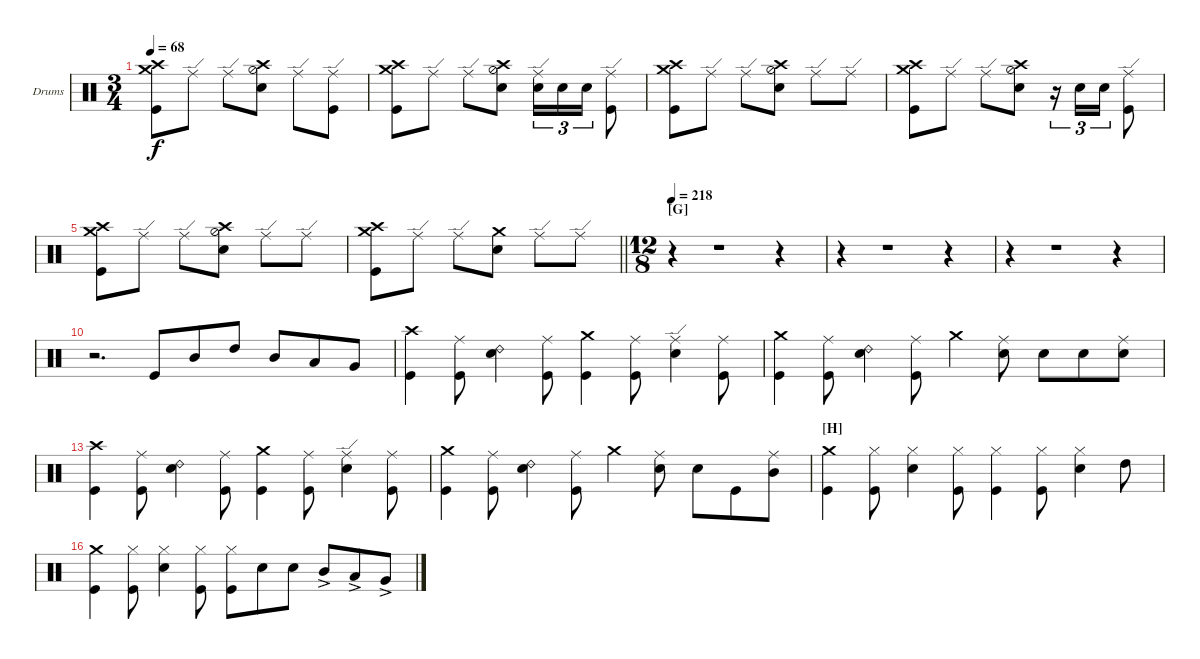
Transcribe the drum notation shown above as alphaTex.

\bracketExtendMode nobrackets
\firstSystemTrackNameOrientation horizontal
\otherSystemsTrackNameOrientation horizontal
\defaultBarNumberDisplay FirstOfSystem
\track ("Drums" "Drums") {instrument percussion}
\staff {score}
\articulation defaults
\ts (3 4)
\tempo 68
\clef neutral
\ks c
("Kick (hit)" "Crash medium (hit)" "Crash high (hit)").8{dy f} "Ride (edge)".8 "Ride (edge)".8 ("Snare (hit) 2" "Crash high (hit)" "Hi-Hat (half)").8 "Ride (edge)".8 ("Ride (edge)" "Kick (hit)").8 |
("Kick (hit)" "Crash medium (hit)" "Crash high (hit)").8 "Ride (edge)".8 "Ride (edge)".8 ("Snare (hit) 2" "Crash high (hit)" "Hi-Hat (half)").8 ("Ride (edge)" "Snare (hit) 2").16{tu (3 2)} "Snare (hit) 2".16{tu (3 2)} "Snare (hit) 2".16{tu (3 2)} ("Ride (edge)" "Kick (hit)").8 |
("Kick (hit)" "Crash medium (hit)" "Crash high (hit)").8 "Ride (edge)".8 "Ride (edge)".8 ("Snare (hit) 2" "Crash high (hit)" "Hi-Hat (half)").8 "Ride (edge)".8 "Ride (edge)".8 |
("Kick (hit)" "Crash medium (hit)" "Crash high (hit)").8 "Ride (edge)".8 "Ride (edge)".8 ("Snare (hit) 2" "Crash high (hit)" "Hi-Hat (half)").8 r.16{tu (3 2)} "Snare (hit) 2".16{tu (3 2)} "Snare (hit) 2".16{tu (3 2)} ("Ride (edge)" "Kick (hit)").8 |
("Kick (hit)" "Crash medium (hit)" "Crash high (hit)").8 "Ride (edge)".8 "Ride (edge)".8 ("Snare (hit) 2" "Crash high (hit)" "Hi-Hat (half)").8 "Ride (edge)".8 "Ride (edge)".8 |
\barLineRight lightlight
("Kick (hit)" "Crash medium (hit)" "Crash high (hit)").8 "Ride (edge)".8 "Ride (edge)".8 ("Snare (hit) 2" "Crash medium (hit)").8 "Ride (edge)".8 "Ride (edge)".8 |
\ts (12 8)
\section ("G" "")
\tempo 218
r.4 r.1 r.4 |
r.4 r.1 r.4 |
r.4 r.1 r.4 |
r.2{d} "Kick (hit)".8 "Mid Tom (hit)".8 "High Tom (hit)".8 "Mid Tom (hit)".8 "Low Tom (hit)".8 "Very Low Tom (hit)".8 |
("Kick (hit)" "Crash high (hit)").4 ("Ride (middle)" "Kick (hit)").8 ("Ride (bell) 2" "Snare (hit) 2").4 ("Kick (hit)" "Ride (middle)").8 ("Kick (hit)" "Crash medium (hit)").4 ("Ride (middle)" "Kick (hit)").8 ("Ride (edge)" "Snare (hit) 2").4 ("Ride (middle)" "Kick (hit)").8 |
("Crash medium (hit)" "Kick (hit)").4 ("Ride (middle)" "Kick (hit)").8 ("Ride (bell) 2" "Snare (hit) 2").4 ("Ride (middle)" "Kick (hit)").8 "Crash medium (hit)".4 ("Snare (hit) 2" "Ride (middle)").8 "Snare (hit) 2".8 "Snare (hit) 2".8 ("Snare (hit) 2" "Ride (middle)").8 |
("Kick (hit)" "Crash high (hit)").4 ("Ride (middle)" "Kick (hit)").8 ("Ride (bell) 2" "Snare (hit) 2").4 ("Kick (hit)" "Ride (middle)").8 ("Kick (hit)" "Crash medium (hit)").4 ("Ride (middle)" "Kick (hit)").8 ("Ride (edge)" "Snare (hit) 2").4 ("Ride (middle)" "Kick (hit)").8 |
("Crash medium (hit)" "Kick (hit)").4 ("Ride (middle)" "Kick (hit)").8 ("Ride (bell) 2" "Snare (hit) 2").4 ("Ride (middle)" "Kick (hit)").8 "Crash medium (hit)".4 ("Snare (hit) 2" "Ride (middle)").8 "Snare (hit) 2".8 "Kick (hit)".8 ("Ride (middle)" "Mid Tom (hit)").8 |
\section ("H" "")
("Crash medium (hit)" "Kick (hit)").4 ("Hi-Hat (closed)" "Kick (hit)").8 ("Hi-Hat (closed)" "Snare (hit) 2").4 ("Hi-Hat (closed)" "Kick (hit)").8 ("Hi-Hat (closed)" "Kick (hit)").4 ("Hi-Hat (closed)" "Kick (hit)").8 ("Hi-Hat (closed)" "Snare (hit) 2").4 "High Tom (hit)".8 |
("Crash medium (hit)" "Kick (hit)").4 ("Hi-Hat (closed)" "Kick (hit)").8 ("Hi-Hat (closed)" "Snare (hit) 2").4 ("Hi-Hat (closed)" "Kick (hit)").8 ("Hi-Hat (closed)" "Kick (hit)").8 "Snare (hit) 2".8 "Snare (hit) 2".8 "Mid Tom (hit)"{ac}.8 "Low Tom (hit)"{ac}.8 "Very Low Tom (hit)"{ac}.8
